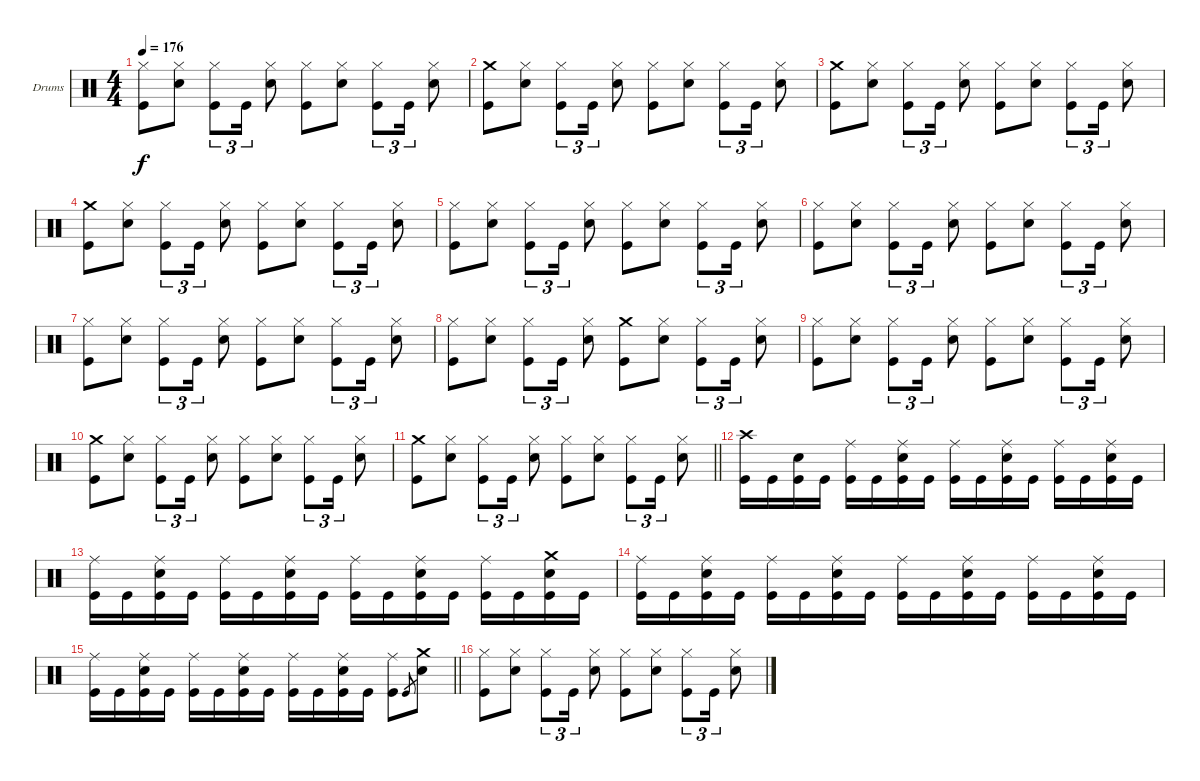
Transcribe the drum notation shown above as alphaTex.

\bracketExtendMode groupsimilarinstruments
\firstSystemTrackNameOrientation horizontal
\otherSystemsTrackNameOrientation horizontal
\track ("Drums" "Drums") {instrument percussion}
\staff {score}
\articulation defaults
\ts (4 4)
\tempo 176
\clef neutral
\ks c
("Kick (hit)" "Hi-Hat (closed)").8{dy f} ("Snare (hit) 2" "Hi-Hat (closed)").8 ("Kick (hit)" "Hi-Hat (closed)").8{tu (3 2)} "Kick (hit)".16{tu (3 2)} ("Snare (hit) 2" "Hi-Hat (closed)").8 ("Kick (hit)" "Hi-Hat (closed)").8 ("Snare (hit) 2" "Hi-Hat (closed)").8 ("Kick (hit)" "Hi-Hat (closed)").8{tu (3 2)} "Kick (hit)".16{tu (3 2)} ("Snare (hit) 2" "Hi-Hat (closed)").8 |
("Kick (hit)" "Crash medium (hit)").8 ("Snare (hit) 2" "Hi-Hat (closed)").8 ("Kick (hit)" "Hi-Hat (closed)").8{tu (3 2)} "Kick (hit)".16{tu (3 2)} ("Snare (hit) 2" "Hi-Hat (closed)").8 ("Kick (hit)" "Hi-Hat (closed)").8 ("Snare (hit) 2" "Hi-Hat (closed)").8 ("Kick (hit)" "Hi-Hat (closed)").8{tu (3 2)} "Kick (hit)".16{tu (3 2)} ("Snare (hit) 2" "Hi-Hat (closed)").8 |
("Kick (hit)" "Crash medium (hit)").8 ("Snare (hit) 2" "Hi-Hat (closed)").8 ("Kick (hit)" "Hi-Hat (closed)").8{tu (3 2)} "Kick (hit)".16{tu (3 2)} ("Snare (hit) 2" "Hi-Hat (closed)").8 ("Kick (hit)" "Hi-Hat (closed)").8 ("Snare (hit) 2" "Hi-Hat (closed)").8 ("Kick (hit)" "Hi-Hat (closed)").8{tu (3 2)} "Kick (hit)".16{tu (3 2)} ("Snare (hit) 2" "Hi-Hat (closed)").8 |
("Kick (hit)" "Crash medium (hit)").8 ("Snare (hit) 2" "Hi-Hat (closed)").8 ("Kick (hit)" "Hi-Hat (closed)").8{tu (3 2)} "Kick (hit)".16{tu (3 2)} ("Snare (hit) 2" "Hi-Hat (closed)").8 ("Kick (hit)" "Hi-Hat (closed)").8 ("Snare (hit) 2" "Hi-Hat (closed)").8 ("Kick (hit)" "Hi-Hat (closed)").8{tu (3 2)} "Kick (hit)".16{tu (3 2)} ("Snare (hit) 2" "Hi-Hat (closed)").8 |
("Kick (hit)" "Hi-Hat (closed)").8 ("Snare (hit) 2" "Hi-Hat (closed)").8 ("Kick (hit)" "Hi-Hat (closed)").8{tu (3 2)} "Kick (hit)".16{tu (3 2)} ("Snare (hit) 2" "Hi-Hat (closed)").8 ("Kick (hit)" "Hi-Hat (closed)").8 ("Snare (hit) 2" "Hi-Hat (closed)").8 ("Kick (hit)" "Hi-Hat (closed)").8{tu (3 2)} "Kick (hit)".16{tu (3 2)} ("Snare (hit) 2" "Hi-Hat (closed)").8 |
("Kick (hit)" "Hi-Hat (closed)").8 ("Snare (hit) 2" "Hi-Hat (closed)").8 ("Kick (hit)" "Hi-Hat (closed)").8{tu (3 2)} "Kick (hit)".16{tu (3 2)} ("Snare (hit) 2" "Hi-Hat (closed)").8 ("Kick (hit)" "Hi-Hat (closed)").8 ("Snare (hit) 2" "Hi-Hat (closed)").8 ("Kick (hit)" "Hi-Hat (closed)").8{tu (3 2)} "Kick (hit)".16{tu (3 2)} ("Snare (hit) 2" "Hi-Hat (closed)").8 |
("Kick (hit)" "Hi-Hat (closed)").8 ("Snare (hit) 2" "Hi-Hat (closed)").8 ("Kick (hit)" "Hi-Hat (closed)").8{tu (3 2)} "Kick (hit)".16{tu (3 2)} ("Snare (hit) 2" "Hi-Hat (closed)").8 ("Kick (hit)" "Hi-Hat (closed)").8 ("Snare (hit) 2" "Hi-Hat (closed)").8 ("Kick (hit)" "Hi-Hat (closed)").8{tu (3 2)} "Kick (hit)".16{tu (3 2)} ("Snare (hit) 2" "Hi-Hat (closed)").8 |
("Kick (hit)" "Hi-Hat (closed)").8 ("Snare (hit) 2" "Hi-Hat (closed)").8 ("Kick (hit)" "Hi-Hat (closed)").8{tu (3 2)} "Kick (hit)".16{tu (3 2)} ("Snare (hit) 2" "Hi-Hat (closed)").8 ("Kick (hit)" "Crash medium (hit)").8 ("Snare (hit) 2" "Hi-Hat (closed)").8 ("Kick (hit)" "Hi-Hat (closed)").8{tu (3 2)} "Kick (hit)".16{tu (3 2)} ("Snare (hit) 2" "Hi-Hat (closed)").8 |
("Kick (hit)" "Hi-Hat (closed)").8 ("Snare (hit) 2" "Hi-Hat (closed)").8 ("Kick (hit)" "Hi-Hat (closed)").8{tu (3 2)} "Kick (hit)".16{tu (3 2)} ("Snare (hit) 2" "Hi-Hat (closed)").8 ("Kick (hit)" "Hi-Hat (closed)").8 ("Snare (hit) 2" "Hi-Hat (closed)").8 ("Kick (hit)" "Hi-Hat (closed)").8{tu (3 2)} "Kick (hit)".16{tu (3 2)} ("Snare (hit) 2" "Hi-Hat (closed)").8 |
("Kick (hit)" "Crash medium (hit)").8 ("Snare (hit) 2" "Hi-Hat (closed)").8 ("Kick (hit)" "Hi-Hat (closed)").8{tu (3 2)} "Kick (hit)".16{tu (3 2)} ("Snare (hit) 2" "Hi-Hat (closed)").8 ("Kick (hit)" "Hi-Hat (closed)").8 ("Snare (hit) 2" "Hi-Hat (closed)").8 ("Kick (hit)" "Hi-Hat (closed)").8{tu (3 2)} "Kick (hit)".16{tu (3 2)} ("Snare (hit) 2" "Hi-Hat (closed)").8 |
\barLineRight lightlight
("Kick (hit)" "Crash medium (hit)").8 ("Snare (hit) 2" "Hi-Hat (closed)").8 ("Kick (hit)" "Hi-Hat (closed)").8{tu (3 2)} "Kick (hit)".16{tu (3 2)} ("Snare (hit) 2" "Hi-Hat (closed)").8 ("Kick (hit)" "Hi-Hat (closed)").8 ("Snare (hit) 2" "Hi-Hat (closed)").8 ("Kick (hit)" "Hi-Hat (closed)").8{tu (3 2)} "Kick (hit)".16{tu (3 2)} ("Snare (hit) 2" "Hi-Hat (closed)").8 |
("Kick (hit)" "Crash high (hit)").16 "Kick (hit)".16 ("Snare (hit) 2" "Kick (hit)").16 "Kick (hit)".16 ("Kick (hit)" "Ride (middle)").16 "Kick (hit)".16 ("Snare (hit) 2" "Ride (middle)" "Kick (hit)").16 "Kick (hit)".16 ("Kick (hit)" "Ride (middle)").16 "Kick (hit)".16 ("Snare (hit) 2" "Ride (middle)" "Kick (hit)").16 "Kick (hit)".16 ("Kick (hit)" "Ride (middle)").16 "Kick (hit)".16 ("Snare (hit) 2" "Ride (middle)" "Kick (hit)").16 "Kick (hit)".16 |
("Kick (hit)" "Ride (middle)").16 "Kick (hit)".16 ("Snare (hit) 2" "Ride (middle)" "Kick (hit)").16 "Kick (hit)".16 ("Kick (hit)" "Ride (middle)").16 "Kick (hit)".16 ("Snare (hit) 2" "Ride (middle)" "Kick (hit)").16 "Kick (hit)".16 ("Kick (hit)" "Ride (middle)").16 "Kick (hit)".16 ("Snare (hit) 2" "Ride (middle)" "Kick (hit)").16 "Kick (hit)".16 ("Kick (hit)" "Ride (middle)").16 "Kick (hit)".16 ("Snare (hit) 2" "Crash medium (hit)" "Kick (hit)").16 "Kick (hit)".16 |
("Kick (hit)" "Ride (middle)").16 "Kick (hit)".16 ("Snare (hit) 2" "Ride (middle)" "Kick (hit)").16 "Kick (hit)".16 ("Kick (hit)" "Ride (middle)").16 "Kick (hit)".16 ("Snare (hit) 2" "Ride (middle)" "Kick (hit)").16 "Kick (hit)".16 ("Kick (hit)" "Ride (middle)").16 "Kick (hit)".16 ("Snare (hit) 2" "Ride (middle)" "Kick (hit)").16 "Kick (hit)".16 ("Kick (hit)" "Ride (middle)").16 "Kick (hit)".16 ("Snare (hit) 2" "Kick (hit)" "Ride (middle)").16 "Kick (hit)".16 |
\barLineRight lightlight
("Kick (hit)" "Ride (middle)").16 "Kick (hit)".16 ("Snare (hit) 2" "Ride (middle)" "Kick (hit)").16 "Kick (hit)".16 ("Kick (hit)" "Ride (middle)").16 "Kick (hit)".16 ("Snare (hit) 2" "Ride (middle)" "Kick (hit)").16 "Kick (hit)".16 ("Kick (hit)" "Ride (middle)").16 "Kick (hit)".16 ("Snare (hit) 2" "Ride (middle)" "Kick (hit)").16 "Kick (hit)".16 ("Kick (hit)" "Ride (middle)").8 "Kick (hit)".8{gr} ("Snare (hit) 2" "Crash medium (hit)").8 |
("Kick (hit)" "Hi-Hat (closed)").8 ("Snare (hit) 2" "Hi-Hat (closed)").8 ("Kick (hit)" "Hi-Hat (closed)").8{tu (3 2)} "Kick (hit)".16{tu (3 2)} ("Snare (hit) 2" "Hi-Hat (closed)").8 ("Kick (hit)" "Hi-Hat (closed)").8 ("Snare (hit) 2" "Hi-Hat (closed)").8 ("Kick (hit)" "Hi-Hat (closed)").8{tu (3 2)} "Kick (hit)".16{tu (3 2)} ("Snare (hit) 2" "Hi-Hat (closed)").8
